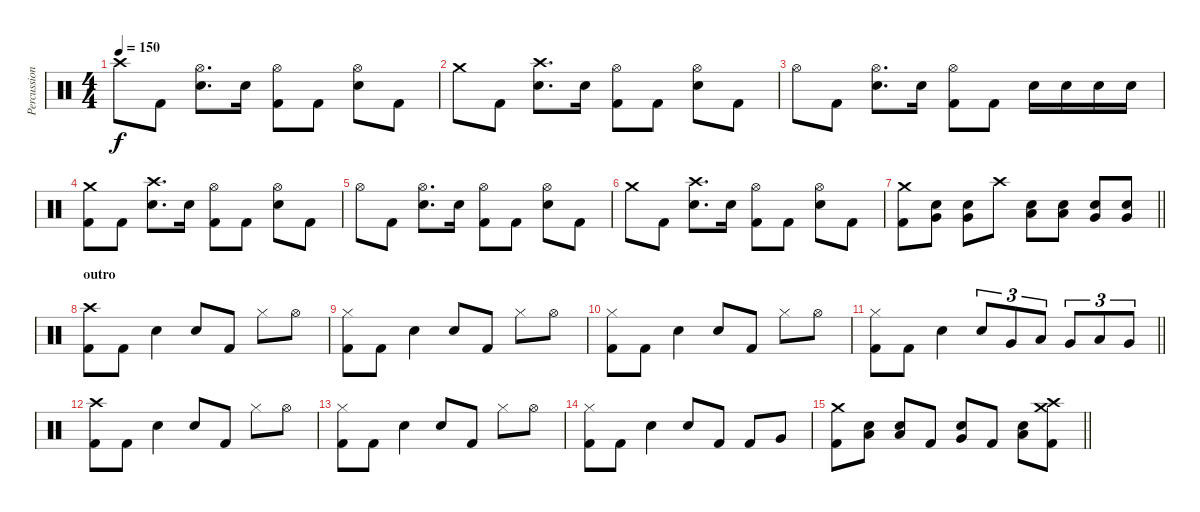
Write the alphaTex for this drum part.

\track ("Percussion" "Percussion") {instrument percussion}
\staff {score}
\articulation defaults
\ts (4 4)
\tempo 150
\clef neutral
\ks c "Crash high (hit)".8{dy f} "Kick (hit) 2".8
("Hi-Hat (open)" "Electric Snare (hit)").8{d} "Electric Snare (hit)".16 ("Hi-Hat (open)" "Kick (hit) 2").8 "Kick (hit) 2".8 ("Hi-Hat (open)" "Electric Snare (hit)").8 "Kick (hit) 2".8 |
"Crash medium (hit)".8 "Kick (hit) 2".8 ("Crash high (hit)" "Electric Snare (hit)").8{d} "Electric Snare (hit)".16 ("Hi-Hat (open)" "Kick (hit) 2").8 "Kick (hit) 2".8 ("Hi-Hat (open)" "Electric Snare (hit)").8 "Kick (hit) 2".8 |
"Hi-Hat (open)".8 "Kick (hit) 2".8 ("Hi-Hat (open)" "Electric Snare (hit)").8{d} "Electric Snare (hit)".16 ("Hi-Hat (open)" "Kick (hit) 2").8 "Kick (hit) 2".8 "Electric Snare (hit)".16 "Electric Snare (hit)".16 "Electric Snare (hit)".16 "Electric Snare (hit)".16 |
("Crash medium (hit)" "Kick (hit) 2").8 "Kick (hit) 2".8 ("Crash high (hit)" "Electric Snare (hit)").8{d} "Electric Snare (hit)".16 ("Hi-Hat (open)" "Kick (hit) 2").8 "Kick (hit) 2".8 ("Hi-Hat (open)" "Electric Snare (hit)").8 "Kick (hit) 2".8 |
"Hi-Hat (open)".8 "Kick (hit) 2".8 ("Hi-Hat (open)" "Electric Snare (hit)").8{d} "Electric Snare (hit)".16 ("Hi-Hat (open)" "Kick (hit) 2").8 "Kick (hit) 2".8 ("Hi-Hat (open)" "Electric Snare (hit)").8 "Kick (hit) 2".8 |
"Crash medium (hit)".8 "Kick (hit) 2".8 ("Crash high (hit)" "Electric Snare (hit)").8{d} "Electric Snare (hit)".16 ("Hi-Hat (open)" "Kick (hit) 2").8 "Kick (hit) 2".8 ("Hi-Hat (open)" "Electric Snare (hit)").8 "Kick (hit) 2".8 |
\barLineRight lightlight
("Crash medium (hit)" "Kick (hit) 2").8 ("Very Low Tom (hit)" "Electric Snare (hit)").8 ("Very Low Tom (hit)" "Electric Snare (hit)").8 "Crash high (hit)".8 ("Low Tom (hit)" "Electric Snare (hit)").8 ("Low Tom (hit)" "Electric Snare (hit)").8 ("Very Low Tom (hit)" "Electric Snare (hit)").8 ("Very Low Tom (hit)" "Electric Snare (hit)").8 |
\section ("" "outro")
("Crash high (hit)" "Kick (hit) 2").8 "Kick (hit) 2".8 "Electric Snare (hit)".4 "Electric Snare (hit)".8 "Kick (hit) 2".8 "Hi-Hat (closed)".8 "Hi-Hat (open)".8 |
("Hi-Hat (closed)" "Kick (hit) 2").8 "Kick (hit) 2".8 "Electric Snare (hit)".4 "Electric Snare (hit)".8 "Kick (hit) 2".8 "Hi-Hat (closed)".8 "Hi-Hat (open)".8 |
("Hi-Hat (closed)" "Kick (hit) 2").8 "Kick (hit) 2".8 "Electric Snare (hit)".4 "Electric Snare (hit)".8 "Kick (hit) 2".8 "Hi-Hat (closed)".8 "Hi-Hat (open)".8 |
\barLineRight lightlight
("Hi-Hat (closed)" "Kick (hit) 2").8 "Kick (hit) 2".8 "Electric Snare (hit)".4 "Electric Snare (hit)".8{tu (3 2)} "Very Low Tom (hit)".8{tu (3 2)} "Low Floor Tom (hit)".8{tu (3 2)} "Very Low Tom (hit)".8{tu (3 2)} "Low Tom (hit)".8{tu (3 2)} "Very Low Tom (hit)".8{tu (3 2)} |
("Crash high (hit)" "Kick (hit) 2").8 "Kick (hit) 2".8 "Electric Snare (hit)".4 "Electric Snare (hit)".8 "Kick (hit) 2".8 "Hi-Hat (closed)".8 "Hi-Hat (open)".8 |
("Hi-Hat (closed)" "Kick (hit) 2").8 "Kick (hit) 2".8 "Electric Snare (hit)".4 "Electric Snare (hit)".8 "Kick (hit) 2".8 "Hi-Hat (closed)".8 "Hi-Hat (open)".8 |
("Hi-Hat (closed)" "Kick (hit) 2").8 "Kick (hit) 2".8 "Electric Snare (hit)".4 "Electric Snare (hit)".8 "Kick (hit) 2".8 "Kick (hit) 2".8 "Very Low Tom (hit)".8 |
\barLineRight lightlight
("Crash medium (hit)" "Kick (hit) 2").8 ("Low Floor Tom (hit)" "Electric Snare (hit)").8 ("Low Floor Tom (hit)" "Electric Snare (hit)").8 "Kick (hit) 2".8 ("Very Low Tom (hit)" "Electric Snare (hit)").8 "Kick (hit) 2".8 ("Low Tom (hit)" "Electric Snare (hit)").8 ("Crash high (hit)" "Crash medium (hit)" "Kick (hit) 2").8
